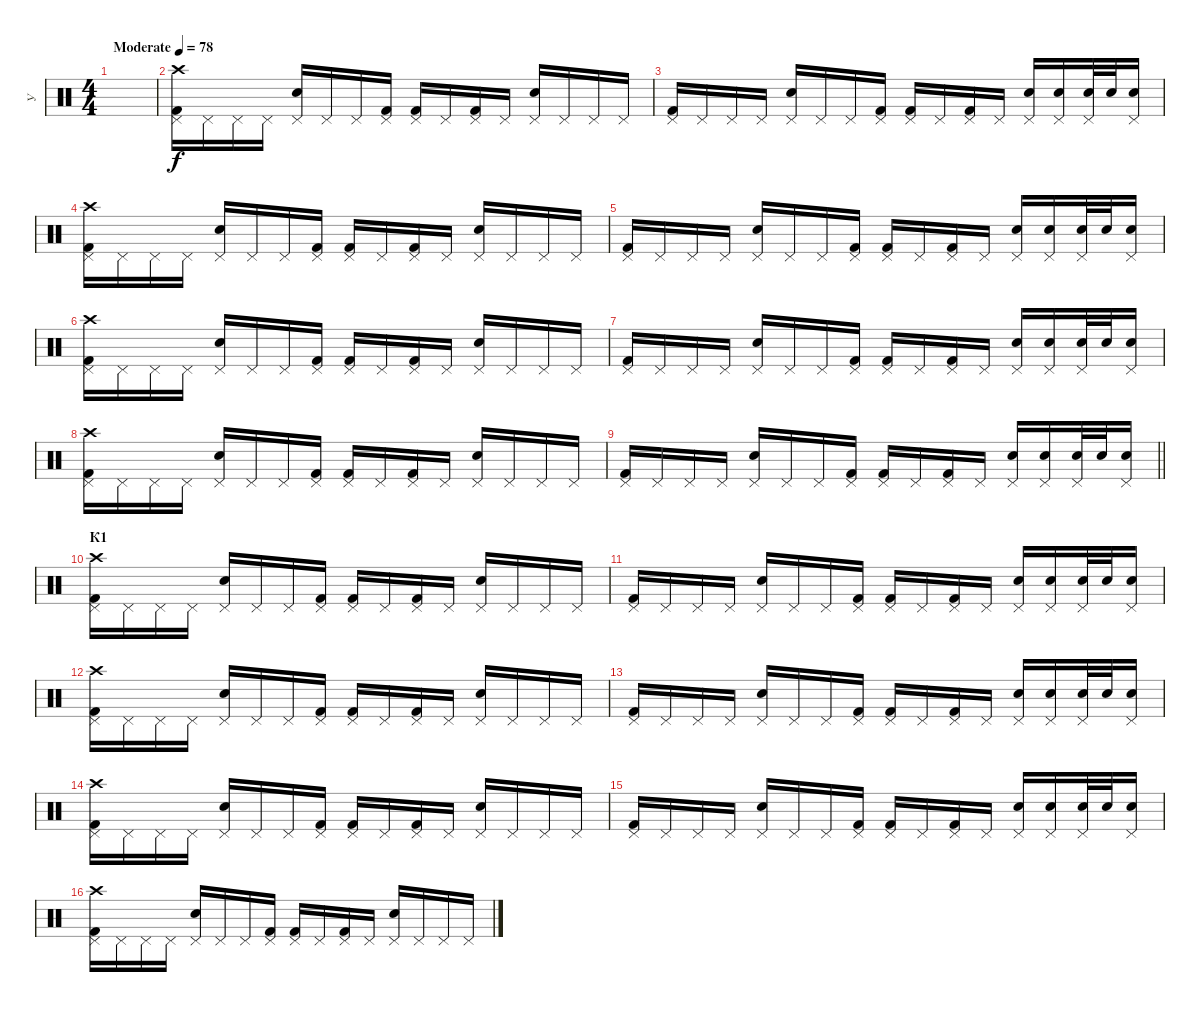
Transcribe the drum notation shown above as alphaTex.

\track ("У" "У") {instrument percussion}
\staff {score}
\articulation defaults
\ts (4 4)
\tempo (78 "Moderate")
\clef neutral
\ks c
|
("Crash high (hit)" "Kick (hit) 2" "Pedal Hi-Hat (hit)").16 "Pedal Hi-Hat (hit)".16 "Pedal Hi-Hat (hit)".16 "Pedal Hi-Hat (hit)".16 ("Electric Snare (hit)" "Pedal Hi-Hat (hit)").16 "Pedal Hi-Hat (hit)".16 "Pedal Hi-Hat (hit)".16 ("Kick (hit) 2" "Pedal Hi-Hat (hit)").16 ("Kick (hit) 2" "Pedal Hi-Hat (hit)").16 "Pedal Hi-Hat (hit)".16 ("Kick (hit) 2" "Pedal Hi-Hat (hit)").16 "Pedal Hi-Hat (hit)".16 ("Electric Snare (hit)" "Pedal Hi-Hat (hit)").16 "Pedal Hi-Hat (hit)".16 "Pedal Hi-Hat (hit)".16 "Pedal Hi-Hat (hit)".16 |
("Kick (hit) 2" "Pedal Hi-Hat (hit)").16 "Pedal Hi-Hat (hit)".16 "Pedal Hi-Hat (hit)".16 "Pedal Hi-Hat (hit)".16 ("Electric Snare (hit)" "Pedal Hi-Hat (hit)").16 "Pedal Hi-Hat (hit)".16 "Pedal Hi-Hat (hit)".16 ("Kick (hit) 2" "Pedal Hi-Hat (hit)").16 ("Kick (hit) 2" "Pedal Hi-Hat (hit)").16 "Pedal Hi-Hat (hit)".16 ("Kick (hit) 2" "Pedal Hi-Hat (hit)").16 "Pedal Hi-Hat (hit)".16 ("Electric Snare (hit)" "Pedal Hi-Hat (hit)").16 ("Electric Snare (hit)" "Pedal Hi-Hat (hit)").16 ("Electric Snare (hit)" "Pedal Hi-Hat (hit)").32 "Electric Snare (hit)".32 ("Electric Snare (hit)" "Pedal Hi-Hat (hit)").16 |
("Crash high (hit)" "Kick (hit) 2" "Pedal Hi-Hat (hit)").16 "Pedal Hi-Hat (hit)".16 "Pedal Hi-Hat (hit)".16 "Pedal Hi-Hat (hit)".16 ("Electric Snare (hit)" "Pedal Hi-Hat (hit)").16 "Pedal Hi-Hat (hit)".16 "Pedal Hi-Hat (hit)".16 ("Kick (hit) 2" "Pedal Hi-Hat (hit)").16 ("Kick (hit) 2" "Pedal Hi-Hat (hit)").16 "Pedal Hi-Hat (hit)".16 ("Kick (hit) 2" "Pedal Hi-Hat (hit)").16 "Pedal Hi-Hat (hit)".16 ("Electric Snare (hit)" "Pedal Hi-Hat (hit)").16 "Pedal Hi-Hat (hit)".16 "Pedal Hi-Hat (hit)".16 "Pedal Hi-Hat (hit)".16 |
("Kick (hit) 2" "Pedal Hi-Hat (hit)").16 "Pedal Hi-Hat (hit)".16 "Pedal Hi-Hat (hit)".16 "Pedal Hi-Hat (hit)".16 ("Electric Snare (hit)" "Pedal Hi-Hat (hit)").16 "Pedal Hi-Hat (hit)".16 "Pedal Hi-Hat (hit)".16 ("Kick (hit) 2" "Pedal Hi-Hat (hit)").16 ("Kick (hit) 2" "Pedal Hi-Hat (hit)").16 "Pedal Hi-Hat (hit)".16 ("Kick (hit) 2" "Pedal Hi-Hat (hit)").16 "Pedal Hi-Hat (hit)".16 ("Electric Snare (hit)" "Pedal Hi-Hat (hit)").16 ("Electric Snare (hit)" "Pedal Hi-Hat (hit)").16 ("Electric Snare (hit)" "Pedal Hi-Hat (hit)").32 "Electric Snare (hit)".32 ("Electric Snare (hit)" "Pedal Hi-Hat (hit)").16 |
("Crash high (hit)" "Kick (hit) 2" "Pedal Hi-Hat (hit)").16 "Pedal Hi-Hat (hit)".16 "Pedal Hi-Hat (hit)".16 "Pedal Hi-Hat (hit)".16 ("Electric Snare (hit)" "Pedal Hi-Hat (hit)").16 "Pedal Hi-Hat (hit)".16 "Pedal Hi-Hat (hit)".16 ("Kick (hit) 2" "Pedal Hi-Hat (hit)").16 ("Kick (hit) 2" "Pedal Hi-Hat (hit)").16 "Pedal Hi-Hat (hit)".16 ("Kick (hit) 2" "Pedal Hi-Hat (hit)").16 "Pedal Hi-Hat (hit)".16 ("Electric Snare (hit)" "Pedal Hi-Hat (hit)").16 "Pedal Hi-Hat (hit)".16 "Pedal Hi-Hat (hit)".16 "Pedal Hi-Hat (hit)".16 |
("Kick (hit) 2" "Pedal Hi-Hat (hit)").16 "Pedal Hi-Hat (hit)".16 "Pedal Hi-Hat (hit)".16 "Pedal Hi-Hat (hit)".16 ("Electric Snare (hit)" "Pedal Hi-Hat (hit)").16 "Pedal Hi-Hat (hit)".16 "Pedal Hi-Hat (hit)".16 ("Kick (hit) 2" "Pedal Hi-Hat (hit)").16 ("Kick (hit) 2" "Pedal Hi-Hat (hit)").16 "Pedal Hi-Hat (hit)".16 ("Kick (hit) 2" "Pedal Hi-Hat (hit)").16 "Pedal Hi-Hat (hit)".16 ("Electric Snare (hit)" "Pedal Hi-Hat (hit)").16 ("Electric Snare (hit)" "Pedal Hi-Hat (hit)").16 ("Electric Snare (hit)" "Pedal Hi-Hat (hit)").32 "Electric Snare (hit)".32 ("Electric Snare (hit)" "Pedal Hi-Hat (hit)").16 |
("Crash high (hit)" "Kick (hit) 2" "Pedal Hi-Hat (hit)").16 "Pedal Hi-Hat (hit)".16 "Pedal Hi-Hat (hit)".16 "Pedal Hi-Hat (hit)".16 ("Electric Snare (hit)" "Pedal Hi-Hat (hit)").16 "Pedal Hi-Hat (hit)".16 "Pedal Hi-Hat (hit)".16 ("Kick (hit) 2" "Pedal Hi-Hat (hit)").16 ("Kick (hit) 2" "Pedal Hi-Hat (hit)").16 "Pedal Hi-Hat (hit)".16 ("Kick (hit) 2" "Pedal Hi-Hat (hit)").16 "Pedal Hi-Hat (hit)".16 ("Electric Snare (hit)" "Pedal Hi-Hat (hit)").16 "Pedal Hi-Hat (hit)".16 "Pedal Hi-Hat (hit)".16 "Pedal Hi-Hat (hit)".16 |
\barLineRight lightlight
("Kick (hit) 2" "Pedal Hi-Hat (hit)").16 "Pedal Hi-Hat (hit)".16 "Pedal Hi-Hat (hit)".16 "Pedal Hi-Hat (hit)".16 ("Electric Snare (hit)" "Pedal Hi-Hat (hit)").16 "Pedal Hi-Hat (hit)".16 "Pedal Hi-Hat (hit)".16 ("Kick (hit) 2" "Pedal Hi-Hat (hit)").16 ("Kick (hit) 2" "Pedal Hi-Hat (hit)").16 "Pedal Hi-Hat (hit)".16 ("Kick (hit) 2" "Pedal Hi-Hat (hit)").16 "Pedal Hi-Hat (hit)".16 ("Electric Snare (hit)" "Pedal Hi-Hat (hit)").16 ("Electric Snare (hit)" "Pedal Hi-Hat (hit)").16 ("Electric Snare (hit)" "Pedal Hi-Hat (hit)").32 "Electric Snare (hit)".32 ("Electric Snare (hit)" "Pedal Hi-Hat (hit)").16 |
\section ("" "К1")
("Crash high (hit)" "Kick (hit) 2" "Pedal Hi-Hat (hit)").16 "Pedal Hi-Hat (hit)".16 "Pedal Hi-Hat (hit)".16 "Pedal Hi-Hat (hit)".16 ("Electric Snare (hit)" "Pedal Hi-Hat (hit)").16 "Pedal Hi-Hat (hit)".16 "Pedal Hi-Hat (hit)".16 ("Kick (hit) 2" "Pedal Hi-Hat (hit)").16 ("Kick (hit) 2" "Pedal Hi-Hat (hit)").16 "Pedal Hi-Hat (hit)".16 ("Kick (hit) 2" "Pedal Hi-Hat (hit)").16 "Pedal Hi-Hat (hit)".16 ("Electric Snare (hit)" "Pedal Hi-Hat (hit)").16 "Pedal Hi-Hat (hit)".16 "Pedal Hi-Hat (hit)".16 "Pedal Hi-Hat (hit)".16 |
("Kick (hit) 2" "Pedal Hi-Hat (hit)").16 "Pedal Hi-Hat (hit)".16 "Pedal Hi-Hat (hit)".16 "Pedal Hi-Hat (hit)".16 ("Electric Snare (hit)" "Pedal Hi-Hat (hit)").16 "Pedal Hi-Hat (hit)".16 "Pedal Hi-Hat (hit)".16 ("Kick (hit) 2" "Pedal Hi-Hat (hit)").16 ("Kick (hit) 2" "Pedal Hi-Hat (hit)").16 "Pedal Hi-Hat (hit)".16 ("Kick (hit) 2" "Pedal Hi-Hat (hit)").16 "Pedal Hi-Hat (hit)".16 ("Electric Snare (hit)" "Pedal Hi-Hat (hit)").16 ("Electric Snare (hit)" "Pedal Hi-Hat (hit)").16 ("Electric Snare (hit)" "Pedal Hi-Hat (hit)").32 "Electric Snare (hit)".32 ("Electric Snare (hit)" "Pedal Hi-Hat (hit)").16 |
("Crash high (hit)" "Kick (hit) 2" "Pedal Hi-Hat (hit)").16 "Pedal Hi-Hat (hit)".16 "Pedal Hi-Hat (hit)".16 "Pedal Hi-Hat (hit)".16 ("Electric Snare (hit)" "Pedal Hi-Hat (hit)").16 "Pedal Hi-Hat (hit)".16 "Pedal Hi-Hat (hit)".16 ("Kick (hit) 2" "Pedal Hi-Hat (hit)").16 ("Kick (hit) 2" "Pedal Hi-Hat (hit)").16 "Pedal Hi-Hat (hit)".16 ("Kick (hit) 2" "Pedal Hi-Hat (hit)").16 "Pedal Hi-Hat (hit)".16 ("Electric Snare (hit)" "Pedal Hi-Hat (hit)").16 "Pedal Hi-Hat (hit)".16 "Pedal Hi-Hat (hit)".16 "Pedal Hi-Hat (hit)".16 |
("Kick (hit) 2" "Pedal Hi-Hat (hit)").16 "Pedal Hi-Hat (hit)".16 "Pedal Hi-Hat (hit)".16 "Pedal Hi-Hat (hit)".16 ("Electric Snare (hit)" "Pedal Hi-Hat (hit)").16 "Pedal Hi-Hat (hit)".16 "Pedal Hi-Hat (hit)".16 ("Kick (hit) 2" "Pedal Hi-Hat (hit)").16 ("Kick (hit) 2" "Pedal Hi-Hat (hit)").16 "Pedal Hi-Hat (hit)".16 ("Kick (hit) 2" "Pedal Hi-Hat (hit)").16 "Pedal Hi-Hat (hit)".16 ("Electric Snare (hit)" "Pedal Hi-Hat (hit)").16 ("Electric Snare (hit)" "Pedal Hi-Hat (hit)").16 ("Electric Snare (hit)" "Pedal Hi-Hat (hit)").32 "Electric Snare (hit)".32 ("Electric Snare (hit)" "Pedal Hi-Hat (hit)").16 |
("Crash high (hit)" "Kick (hit) 2" "Pedal Hi-Hat (hit)").16 "Pedal Hi-Hat (hit)".16 "Pedal Hi-Hat (hit)".16 "Pedal Hi-Hat (hit)".16 ("Electric Snare (hit)" "Pedal Hi-Hat (hit)").16 "Pedal Hi-Hat (hit)".16 "Pedal Hi-Hat (hit)".16 ("Kick (hit) 2" "Pedal Hi-Hat (hit)").16 ("Kick (hit) 2" "Pedal Hi-Hat (hit)").16 "Pedal Hi-Hat (hit)".16 ("Kick (hit) 2" "Pedal Hi-Hat (hit)").16 "Pedal Hi-Hat (hit)".16 ("Electric Snare (hit)" "Pedal Hi-Hat (hit)").16 "Pedal Hi-Hat (hit)".16 "Pedal Hi-Hat (hit)".16 "Pedal Hi-Hat (hit)".16 |
("Kick (hit) 2" "Pedal Hi-Hat (hit)").16 "Pedal Hi-Hat (hit)".16 "Pedal Hi-Hat (hit)".16 "Pedal Hi-Hat (hit)".16 ("Electric Snare (hit)" "Pedal Hi-Hat (hit)").16 "Pedal Hi-Hat (hit)".16 "Pedal Hi-Hat (hit)".16 ("Kick (hit) 2" "Pedal Hi-Hat (hit)").16 ("Kick (hit) 2" "Pedal Hi-Hat (hit)").16 "Pedal Hi-Hat (hit)".16 ("Kick (hit) 2" "Pedal Hi-Hat (hit)").16 "Pedal Hi-Hat (hit)".16 ("Electric Snare (hit)" "Pedal Hi-Hat (hit)").16 ("Electric Snare (hit)" "Pedal Hi-Hat (hit)").16 ("Electric Snare (hit)" "Pedal Hi-Hat (hit)").32 "Electric Snare (hit)".32 ("Electric Snare (hit)" "Pedal Hi-Hat (hit)").16 |
("Crash high (hit)" "Kick (hit) 2" "Pedal Hi-Hat (hit)").16 "Pedal Hi-Hat (hit)".16 "Pedal Hi-Hat (hit)".16 "Pedal Hi-Hat (hit)".16 ("Electric Snare (hit)" "Pedal Hi-Hat (hit)").16 "Pedal Hi-Hat (hit)".16 "Pedal Hi-Hat (hit)".16 ("Kick (hit) 2" "Pedal Hi-Hat (hit)").16 ("Kick (hit) 2" "Pedal Hi-Hat (hit)").16 "Pedal Hi-Hat (hit)".16 ("Kick (hit) 2" "Pedal Hi-Hat (hit)").16 "Pedal Hi-Hat (hit)".16 ("Electric Snare (hit)" "Pedal Hi-Hat (hit)").16 "Pedal Hi-Hat (hit)".16 "Pedal Hi-Hat (hit)".16 "Pedal Hi-Hat (hit)".16
